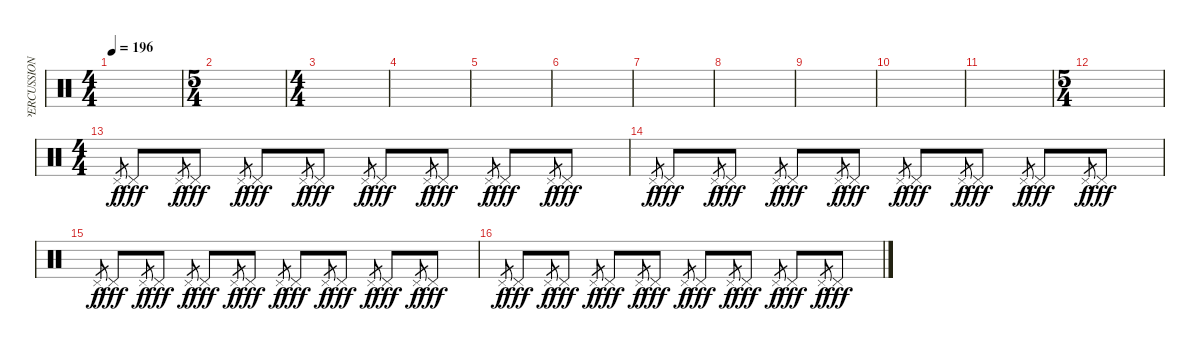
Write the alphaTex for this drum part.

\track ("PERCUSSION" "PERCUSSION") {instrument percussion}
\staff {score}
\articulation defaults
\ts (4 4)
\tempo 196
\clef neutral
\ks c
|
\ts (5 4)
|
\ts (4 4)
|
|
|
|
|
|
|
|
|
\ts (5 4)
|
\ts (4 4)
"Pedal Hi-Hat (hit)".8{gr dy f} "Pedal Hi-Hat (hit)".8{dy fff} "Pedal Hi-Hat (hit)".8{gr dy f} "Pedal Hi-Hat (hit)".8{dy fff} "Pedal Hi-Hat (hit)".8{gr dy f} "Pedal Hi-Hat (hit)".8{dy fff} "Pedal Hi-Hat (hit)".8{gr dy f} "Pedal Hi-Hat (hit)".8{dy fff} "Pedal Hi-Hat (hit)".8{gr dy f} "Pedal Hi-Hat (hit)".8{dy fff} "Pedal Hi-Hat (hit)".8{gr dy f} "Pedal Hi-Hat (hit)".8{dy fff} "Pedal Hi-Hat (hit)".8{gr dy f} "Pedal Hi-Hat (hit)".8{dy fff} "Pedal Hi-Hat (hit)".8{gr dy f} "Pedal Hi-Hat (hit)".8{dy fff} |
"Pedal Hi-Hat (hit)".8{gr dy f} "Pedal Hi-Hat (hit)".8{dy fff} "Pedal Hi-Hat (hit)".8{gr dy f} "Pedal Hi-Hat (hit)".8{dy fff} "Pedal Hi-Hat (hit)".8{gr dy f} "Pedal Hi-Hat (hit)".8{dy fff} "Pedal Hi-Hat (hit)".8{gr dy f} "Pedal Hi-Hat (hit)".8{dy fff} "Pedal Hi-Hat (hit)".8{gr dy f} "Pedal Hi-Hat (hit)".8{dy fff} "Pedal Hi-Hat (hit)".8{gr dy f} "Pedal Hi-Hat (hit)".8{dy fff} "Pedal Hi-Hat (hit)".8{gr dy f} "Pedal Hi-Hat (hit)".8{dy fff} "Pedal Hi-Hat (hit)".8{gr dy f} "Pedal Hi-Hat (hit)".8{dy fff} |
"Pedal Hi-Hat (hit)".8{gr dy f} "Pedal Hi-Hat (hit)".8{dy fff} "Pedal Hi-Hat (hit)".8{gr dy f} "Pedal Hi-Hat (hit)".8{dy fff} "Pedal Hi-Hat (hit)".8{gr dy f} "Pedal Hi-Hat (hit)".8{dy fff} "Pedal Hi-Hat (hit)".8{gr dy f} "Pedal Hi-Hat (hit)".8{dy fff} "Pedal Hi-Hat (hit)".8{gr dy f} "Pedal Hi-Hat (hit)".8{dy fff} "Pedal Hi-Hat (hit)".8{gr dy f} "Pedal Hi-Hat (hit)".8{dy fff} "Pedal Hi-Hat (hit)".8{gr dy f} "Pedal Hi-Hat (hit)".8{dy fff} "Pedal Hi-Hat (hit)".8{gr dy f} "Pedal Hi-Hat (hit)".8{dy fff} |
"Pedal Hi-Hat (hit)".8{gr dy f} "Pedal Hi-Hat (hit)".8{dy fff} "Pedal Hi-Hat (hit)".8{gr dy f} "Pedal Hi-Hat (hit)".8{dy fff} "Pedal Hi-Hat (hit)".8{gr dy f} "Pedal Hi-Hat (hit)".8{dy fff} "Pedal Hi-Hat (hit)".8{gr dy f} "Pedal Hi-Hat (hit)".8{dy fff} "Pedal Hi-Hat (hit)".8{gr dy f} "Pedal Hi-Hat (hit)".8{dy fff} "Pedal Hi-Hat (hit)".8{gr dy f} "Pedal Hi-Hat (hit)".8{dy fff} "Pedal Hi-Hat (hit)".8{gr dy f} "Pedal Hi-Hat (hit)".8{dy fff} "Pedal Hi-Hat (hit)".8{gr dy f} "Pedal Hi-Hat (hit)".8{dy fff}
